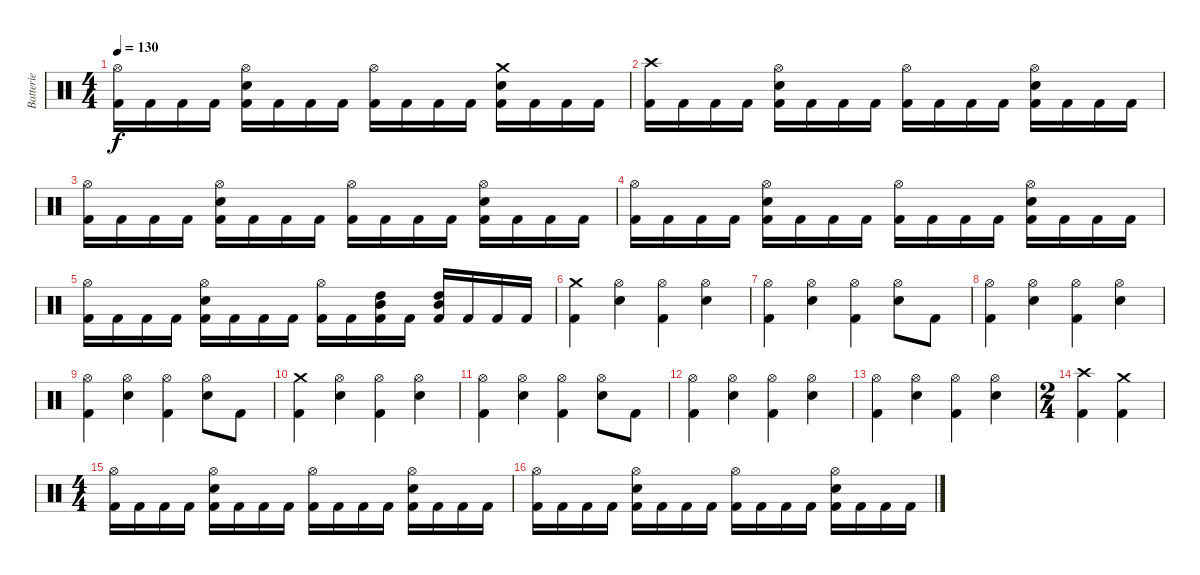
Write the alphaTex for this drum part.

\track ("Batterie" "Batterie") {instrument percussion}
\staff {score}
\articulation defaults
\ts (4 4)
\tempo 130
\clef neutral
\ks c
("Hi-Hat (open)" "Kick (hit) 2").16{dy f} "Kick (hit) 2".16 "Kick (hit) 2".16 "Kick (hit) 2".16 ("Hi-Hat (open)" "Snare (hit) 2" "Kick (hit) 2").16 "Kick (hit) 2".16 "Kick (hit) 2".16 "Kick (hit) 2".16 ("Hi-Hat (open)" "Kick (hit) 2").16 "Kick (hit) 2".16 "Kick (hit) 2".16 "Kick (hit) 2".16 ("Crash medium (hit)" "Snare (hit) 2" "Kick (hit) 2").16 "Kick (hit) 2".16 "Kick (hit) 2".16 "Kick (hit) 2".16 |
("Crash high (hit)" "Kick (hit) 2").16 "Kick (hit) 2".16 "Kick (hit) 2".16 "Kick (hit) 2".16 ("Hi-Hat (open)" "Snare (hit) 2" "Kick (hit) 2").16 "Kick (hit) 2".16 "Kick (hit) 2".16 "Kick (hit) 2".16 ("Hi-Hat (open)" "Kick (hit) 2").16 "Kick (hit) 2".16 "Kick (hit) 2".16 "Kick (hit) 2".16 ("Hi-Hat (open)" "Snare (hit) 2" "Kick (hit) 2").16 "Kick (hit) 2".16 "Kick (hit) 2".16 "Kick (hit) 2".16 |
("Hi-Hat (open)" "Kick (hit) 2").16 "Kick (hit) 2".16 "Kick (hit) 2".16 "Kick (hit) 2".16 ("Hi-Hat (open)" "Snare (hit) 2" "Kick (hit) 2").16 "Kick (hit) 2".16 "Kick (hit) 2".16 "Kick (hit) 2".16 ("Hi-Hat (open)" "Kick (hit) 2").16 "Kick (hit) 2".16 "Kick (hit) 2".16 "Kick (hit) 2".16 ("Hi-Hat (open)" "Snare (hit) 2" "Kick (hit) 2").16 "Kick (hit) 2".16 "Kick (hit) 2".16 "Kick (hit) 2".16 |
("Hi-Hat (open)" "Kick (hit) 2").16 "Kick (hit) 2".16 "Kick (hit) 2".16 "Kick (hit) 2".16 ("Hi-Hat (open)" "Snare (hit) 2" "Kick (hit) 2").16 "Kick (hit) 2".16 "Kick (hit) 2".16 "Kick (hit) 2".16 ("Hi-Hat (open)" "Kick (hit) 2").16 "Kick (hit) 2".16 "Kick (hit) 2".16 "Kick (hit) 2".16 ("Hi-Hat (open)" "Snare (hit) 2" "Kick (hit) 2").16 "Kick (hit) 2".16 "Kick (hit) 2".16 "Kick (hit) 2".16 |
("Hi-Hat (open)" "Kick (hit) 2").16 "Kick (hit) 2".16 "Kick (hit) 2".16 "Kick (hit) 2".16 ("Hi-Hat (open)" "Snare (hit) 2" "Kick (hit) 2").16 "Kick (hit) 2".16 "Kick (hit) 2".16 "Kick (hit) 2".16 ("Hi-Hat (open)" "Kick (hit) 2").16 "Kick (hit) 2".16 ("High Tom (hit)" "Mid Tom (hit)" "Kick (hit) 2").16 "Kick (hit) 2".16 ("High Tom (hit)" "Mid Tom (hit)" "Kick (hit) 2").16 "Kick (hit) 2".16 "Kick (hit) 2".16 "Kick (hit) 2".16 |
("Crash medium (hit)" "Kick (hit) 2").4 ("Hi-Hat (open)" "Snare (hit) 2").4 ("Hi-Hat (open)" "Kick (hit) 2").4 ("Hi-Hat (open)" "Snare (hit) 2").4 |
("Hi-Hat (open)" "Kick (hit) 2").4 ("Hi-Hat (open)" "Snare (hit) 2").4 ("Hi-Hat (open)" "Kick (hit) 2").4 ("Hi-Hat (open)" "Snare (hit) 2").8 "Kick (hit) 2".8 |
("Hi-Hat (open)" "Kick (hit) 2").4 ("Hi-Hat (open)" "Snare (hit) 2").4 ("Hi-Hat (open)" "Kick (hit) 2").4 ("Hi-Hat (open)" "Snare (hit) 2").4 |
("Hi-Hat (open)" "Kick (hit) 2").4 ("Hi-Hat (open)" "Snare (hit) 2").4 ("Hi-Hat (open)" "Kick (hit) 2").4 ("Hi-Hat (open)" "Snare (hit) 2").8 "Kick (hit) 2".8 |
("Crash medium (hit)" "Kick (hit) 2").4 ("Hi-Hat (open)" "Snare (hit) 2").4 ("Hi-Hat (open)" "Kick (hit) 2").4 ("Hi-Hat (open)" "Snare (hit) 2").4 |
("Hi-Hat (open)" "Kick (hit) 2").4 ("Hi-Hat (open)" "Snare (hit) 2").4 ("Hi-Hat (open)" "Kick (hit) 2").4 ("Hi-Hat (open)" "Snare (hit) 2").8 "Kick (hit) 2".8 |
("Hi-Hat (open)" "Kick (hit) 2").4 ("Hi-Hat (open)" "Snare (hit) 2").4 ("Hi-Hat (open)" "Kick (hit) 2").4 ("Hi-Hat (open)" "Snare (hit) 2").4 |
("Hi-Hat (open)" "Kick (hit) 2").4 ("Hi-Hat (open)" "Snare (hit) 2").4 ("Hi-Hat (open)" "Kick (hit) 2").4 ("Hi-Hat (open)" "Snare (hit) 2").4 |
\ts (2 4)
("Crash high (hit)" "Kick (hit) 2").4 ("Crash medium (hit)" "Kick (hit) 2").4 |
\ts (4 4)
("Hi-Hat (open)" "Kick (hit) 2").16 "Kick (hit) 2".16 "Kick (hit) 2".16 "Kick (hit) 2".16 ("Hi-Hat (open)" "Snare (hit) 2" "Kick (hit) 2").16 "Kick (hit) 2".16 "Kick (hit) 2".16 "Kick (hit) 2".16 ("Hi-Hat (open)" "Kick (hit) 2").16 "Kick (hit) 2".16 "Kick (hit) 2".16 "Kick (hit) 2".16 ("Hi-Hat (open)" "Snare (hit) 2" "Kick (hit) 2").16 "Kick (hit) 2".16 "Kick (hit) 2".16 "Kick (hit) 2".16 |
("Hi-Hat (open)" "Kick (hit) 2").16 "Kick (hit) 2".16 "Kick (hit) 2".16 "Kick (hit) 2".16 ("Hi-Hat (open)" "Snare (hit) 2" "Kick (hit) 2").16 "Kick (hit) 2".16 "Kick (hit) 2".16 "Kick (hit) 2".16 ("Hi-Hat (open)" "Kick (hit) 2").16 "Kick (hit) 2".16 "Kick (hit) 2".16 "Kick (hit) 2".16 ("Hi-Hat (open)" "Snare (hit) 2" "Kick (hit) 2").16 "Kick (hit) 2".16 "Kick (hit) 2".16 "Kick (hit) 2".16
